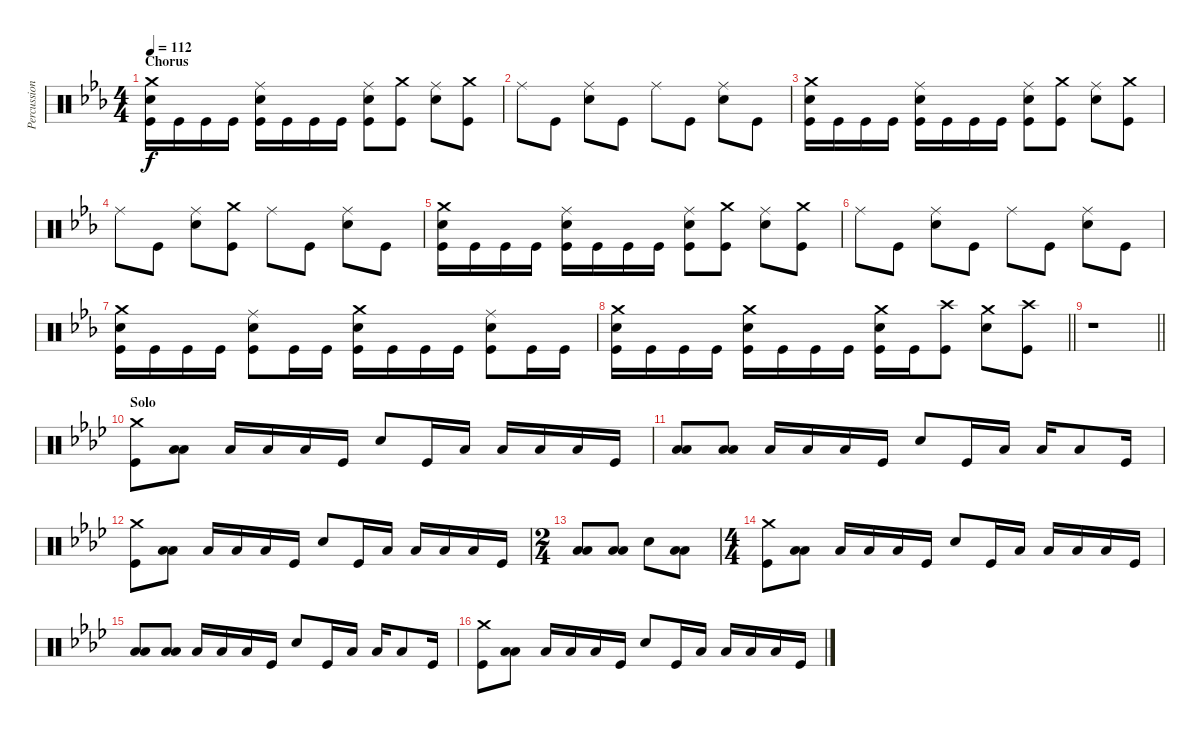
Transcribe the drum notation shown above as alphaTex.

\track ("Percussion" "Percussion") {instrument percussion}
\staff {score}
\articulation defaults
\ts (4 4)
\section ("" "Chorus")
\tempo 112
\clef neutral
\ks eb
("Crash medium (hit)" "Electric Snare (hit)" "Kick (hit)").16{dy f} "Kick (hit)".16 "Kick (hit)".16 "Kick (hit)".16 ("Ride (middle)" "Electric Snare (hit)" "Kick (hit)").16 "Kick (hit)".16 "Kick (hit)".16 "Kick (hit)".16 ("Ride (middle)" "Electric Snare (hit)" "Kick (hit)").8 ("Crash medium (hit)" "Kick (hit)").8 ("Ride (middle)" "Electric Snare (hit)").8 ("Crash medium (hit)" "Kick (hit)").8 |
"Ride (middle)".8 "Kick (hit)".8 ("Ride (middle)" "Electric Snare (hit)").8 "Kick (hit)".8 "Ride (middle)".8 "Kick (hit)".8 ("Ride (middle)" "Electric Snare (hit)").8 "Kick (hit)".8 |
("Crash medium (hit)" "Electric Snare (hit)" "Kick (hit)").16 "Kick (hit)".16 "Kick (hit)".16 "Kick (hit)".16 ("Ride (middle)" "Electric Snare (hit)" "Kick (hit)").16 "Kick (hit)".16 "Kick (hit)".16 "Kick (hit)".16 ("Ride (middle)" "Electric Snare (hit)" "Kick (hit)").8 ("Crash medium (hit)" "Kick (hit)").8 ("Ride (middle)" "Electric Snare (hit)").8 ("Crash medium (hit)" "Kick (hit)").8 |
"Ride (middle)".8 "Kick (hit)".8 ("Ride (middle)" "Electric Snare (hit)").8 ("Crash medium (hit)" "Kick (hit)").8 "Ride (middle)".8 "Kick (hit)".8 ("Ride (middle)" "Electric Snare (hit)").8 "Kick (hit)".8 |
("Crash medium (hit)" "Electric Snare (hit)" "Kick (hit)").16 "Kick (hit)".16 "Kick (hit)".16 "Kick (hit)".16 ("Ride (middle)" "Electric Snare (hit)" "Kick (hit)").16 "Kick (hit)".16 "Kick (hit)".16 "Kick (hit)".16 ("Ride (middle)" "Electric Snare (hit)" "Kick (hit)").8 ("Crash medium (hit)" "Kick (hit)").8 ("Ride (middle)" "Electric Snare (hit)").8 ("Crash medium (hit)" "Kick (hit)").8 |
"Ride (middle)".8 "Kick (hit)".8 ("Ride (middle)" "Electric Snare (hit)").8 "Kick (hit)".8 "Ride (middle)".8 "Kick (hit)".8 ("Ride (middle)" "Electric Snare (hit)").8 "Kick (hit)".8 |
("Crash medium (hit)" "Electric Snare (hit)" "Kick (hit)").16 "Kick (hit)".16 "Kick (hit)".16 "Kick (hit)".16 ("Ride (middle)" "Electric Snare (hit)" "Kick (hit)").8 "Kick (hit)".16 "Kick (hit)".16 ("Crash medium (hit)" "Electric Snare (hit)" "Kick (hit)").16 "Kick (hit)".16 "Kick (hit)".16 "Kick (hit)".16 ("Ride (middle)" "Electric Snare (hit)" "Kick (hit)").8 "Kick (hit)".16 "Kick (hit)".16 |
\barLineRight lightlight
("Crash medium (hit)" "Electric Snare (hit)" "Kick (hit)").16 "Kick (hit)".16 "Kick (hit)".16 "Kick (hit)".16 ("Crash medium (hit)" "Electric Snare (hit)" "Kick (hit)").16 "Kick (hit)".16 "Kick (hit)".16 "Kick (hit)".16 ("Crash medium (hit)" "Electric Snare (hit)" "Kick (hit)").16 "Kick (hit)".16 ("Crash high (hit)" "Kick (hit)").8 ("Crash medium (hit)" "Electric Snare (hit)").8 ("Crash high (hit)" "Kick (hit)").8 |
\section ("" "")
\barLineRight lightlight
r.1{volume 0} |
\section ("" "Solo")
\ks ab
("Crash medium (hit)" "Kick (hit)").8{volume 13} ("Low Tom (hit)" "Low Floor Tom (hit)").8 "Low Floor Tom (hit)".16 "Low Tom (hit)".16 "Low Floor Tom (hit)".16 "Kick (hit)".16 "Electric Snare (hit)".8 "Kick (hit)".16 "Low Tom (hit)".16 "Low Floor Tom (hit)".16 "Low Tom (hit)".16 "Low Floor Tom (hit)".16 "Kick (hit)".16 |
("Low Tom (hit)" "Low Floor Tom (hit)").8 ("Low Tom (hit)" "Low Floor Tom (hit)").8 "Low Floor Tom (hit)".16 "Low Tom (hit)".16 "Low Floor Tom (hit)".16 "Kick (hit)".16 "Electric Snare (hit)".8 "Kick (hit)".16 "Low Tom (hit)".16 "Low Floor Tom (hit)".16 "Low Tom (hit)".8 "Kick (hit)".16 |
("Crash medium (hit)" "Kick (hit)").8 ("Low Tom (hit)" "Low Floor Tom (hit)").8 "Low Floor Tom (hit)".16 "Low Tom (hit)".16 "Low Floor Tom (hit)".16 "Kick (hit)".16 "Electric Snare (hit)".8 "Kick (hit)".16 "Low Tom (hit)".16 "Low Floor Tom (hit)".16 "Low Tom (hit)".16 "Low Floor Tom (hit)".16 "Kick (hit)".16 |
\ts (2 4)
("Low Tom (hit)" "Low Floor Tom (hit)").8 ("Low Tom (hit)" "Low Floor Tom (hit)").8 "Electric Snare (hit)".8 ("Low Tom (hit)" "Low Floor Tom (hit)").8 |
\ts (4 4)
("Crash medium (hit)" "Kick (hit)").8 ("Low Tom (hit)" "Low Floor Tom (hit)").8 "Low Floor Tom (hit)".16 "Low Tom (hit)".16 "Low Floor Tom (hit)".16 "Kick (hit)".16 "Electric Snare (hit)".8 "Kick (hit)".16 "Low Tom (hit)".16 "Low Floor Tom (hit)".16 "Low Tom (hit)".16 "Low Floor Tom (hit)".16 "Kick (hit)".16 |
("Low Tom (hit)" "Low Floor Tom (hit)").8 ("Low Tom (hit)" "Low Floor Tom (hit)").8 "Low Floor Tom (hit)".16 "Low Tom (hit)".16 "Low Floor Tom (hit)".16 "Kick (hit)".16 "Electric Snare (hit)".8 "Kick (hit)".16 "Low Tom (hit)".16 "Low Floor Tom (hit)".16 "Low Tom (hit)".8 "Kick (hit)".16 |
("Crash medium (hit)" "Kick (hit)").8 ("Low Tom (hit)" "Low Floor Tom (hit)").8 "Low Floor Tom (hit)".16 "Low Tom (hit)".16 "Low Floor Tom (hit)".16 "Kick (hit)".16 "Electric Snare (hit)".8 "Kick (hit)".16 "Low Tom (hit)".16 "Low Floor Tom (hit)".16 "Low Tom (hit)".16 "Low Floor Tom (hit)".16 "Kick (hit)".16
